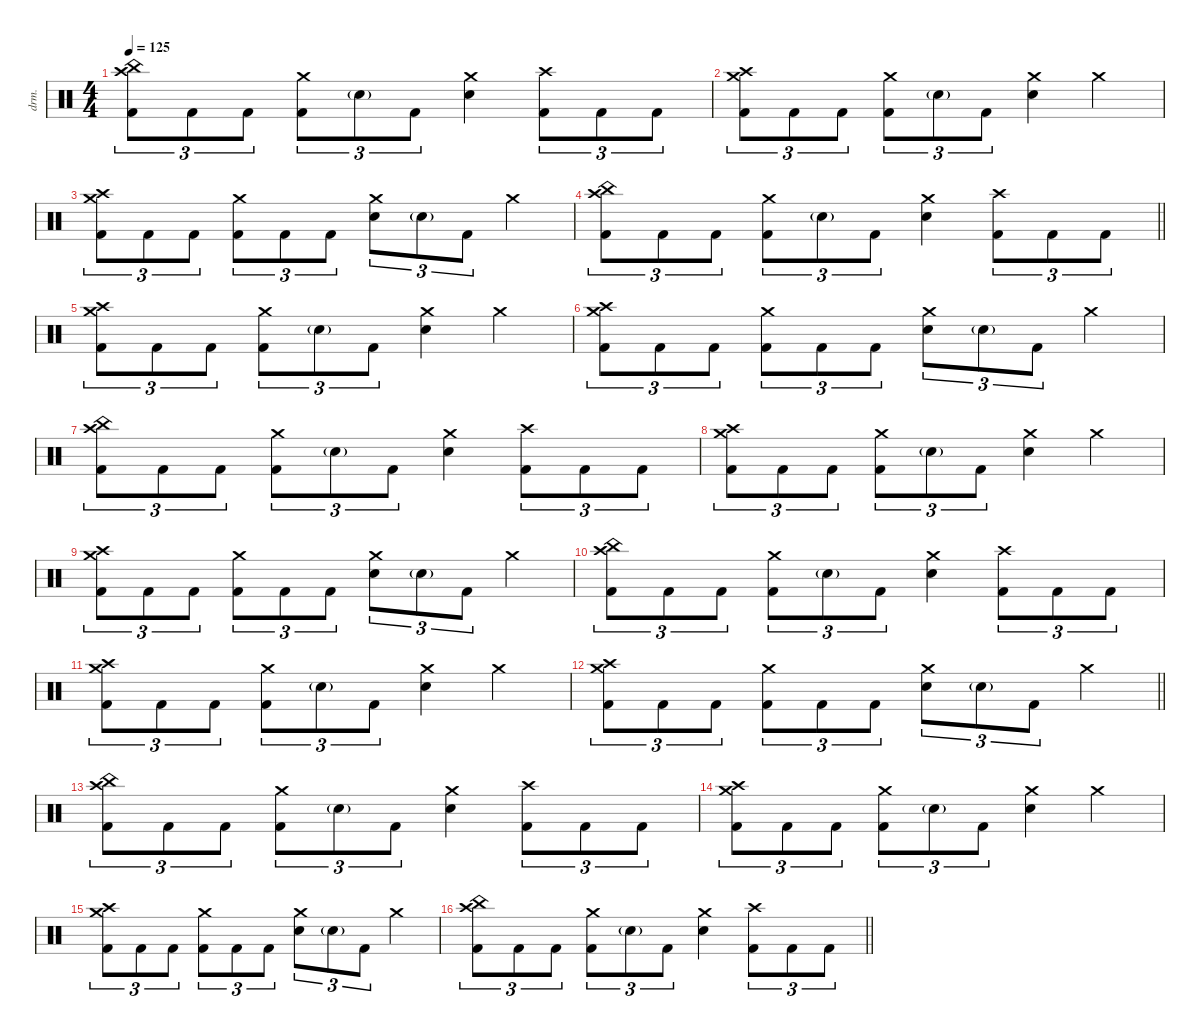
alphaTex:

\defaultSystemsLayout 4
\hideDynamics
\bracketExtendMode nobrackets
\track ("DRUMS (Thomas Haake)" "drm.") {instrument percussion}
\staff {score}
\articulation defaults
\ts (4 4)
\tempo 125
\clef neutral
\ks c
("China (hit)" "Crash high (hit)" "Kick (hit) 2").8{tu (3 2) dy mf} "Kick (hit) 2".8{tu (3 2) dy f} "Kick (hit) 2".8{tu (3 2)} ("Crash medium (hit)" "Kick (hit) 2").8{tu (3 2) dy mf} "Snare (hit) 2"{g}.8{tu (3 2) dy p} "Kick (hit) 2".8{tu (3 2) dy f} ("Crash medium (hit)" "Snare (hit) 2").4{dy mf} ("Crash high (hit)" "Kick (hit) 2").8{tu (3 2) dy f} "Kick (hit) 2".8{tu (3 2)} "Kick (hit) 2".8{tu (3 2)} |
("Crash medium (hit)" "Crash high (hit)" "Kick (hit) 2").8{tu (3 2) dy mf} "Kick (hit) 2".8{tu (3 2) dy f} "Kick (hit) 2".8{tu (3 2)} ("Crash medium (hit)" "Kick (hit) 2").8{tu (3 2) dy mf} "Snare (hit) 2"{g}.8{tu (3 2) dy p} "Kick (hit) 2".8{tu (3 2) dy f} ("Crash medium (hit)" "Snare (hit) 2").4{dy mf} "Crash medium (hit)".4 |
("Crash medium (hit)" "Crash high (hit)" "Kick (hit) 2").8{tu (3 2)} "Kick (hit) 2".8{tu (3 2) dy f} "Kick (hit) 2".8{tu (3 2)} ("Crash medium (hit)" "Kick (hit) 2").8{tu (3 2) dy mf} "Kick (hit) 2".8{tu (3 2) dy f} "Kick (hit) 2".8{tu (3 2)} ("Crash medium (hit)" "Snare (hit) 2").8{tu (3 2) dy mf} "Snare (hit) 2"{g}.8{tu (3 2) dy mp} "Kick (hit) 2".8{tu (3 2) dy f} "Crash medium (hit)".4{dy mf} |
\barLineRight lightlight
("China (hit)" "Crash high (hit)" "Kick (hit) 2").8{tu (3 2)} "Kick (hit) 2".8{tu (3 2) dy f} "Kick (hit) 2".8{tu (3 2)} ("Crash medium (hit)" "Kick (hit) 2").8{tu (3 2) dy mf} "Snare (hit) 2"{g}.8{tu (3 2) dy p} "Kick (hit) 2".8{tu (3 2) dy f} ("Crash medium (hit)" "Snare (hit) 2").4{dy mf} ("Crash high (hit)" "Kick (hit) 2").8{tu (3 2) dy f} "Kick (hit) 2".8{tu (3 2)} "Kick (hit) 2".8{tu (3 2)} |
("Crash medium (hit)" "Crash high (hit)" "Kick (hit) 2").8{tu (3 2) dy mf} "Kick (hit) 2".8{tu (3 2) dy f} "Kick (hit) 2".8{tu (3 2)} ("Crash medium (hit)" "Kick (hit) 2").8{tu (3 2) dy mf} "Snare (hit) 2"{g}.8{tu (3 2) dy p} "Kick (hit) 2".8{tu (3 2) dy f} ("Crash medium (hit)" "Snare (hit) 2").4{dy mf} "Crash medium (hit)".4 |
("Crash medium (hit)" "Crash high (hit)" "Kick (hit) 2").8{tu (3 2)} "Kick (hit) 2".8{tu (3 2) dy f} "Kick (hit) 2".8{tu (3 2)} ("Crash medium (hit)" "Kick (hit) 2").8{tu (3 2) dy mf} "Kick (hit) 2".8{tu (3 2) dy f} "Kick (hit) 2".8{tu (3 2)} ("Crash medium (hit)" "Snare (hit) 2").8{tu (3 2) dy mf} "Snare (hit) 2"{g}.8{tu (3 2) dy mp} "Kick (hit) 2".8{tu (3 2) dy f} "Crash medium (hit)".4{dy mf} |
("China (hit)" "Crash high (hit)" "Kick (hit) 2").8{tu (3 2)} "Kick (hit) 2".8{tu (3 2) dy f} "Kick (hit) 2".8{tu (3 2)} ("Crash medium (hit)" "Kick (hit) 2").8{tu (3 2) dy mf} "Snare (hit) 2"{g}.8{tu (3 2) dy p} "Kick (hit) 2".8{tu (3 2) dy f} ("Crash medium (hit)" "Snare (hit) 2").4{dy mf} ("Crash high (hit)" "Kick (hit) 2").8{tu (3 2) dy f} "Kick (hit) 2".8{tu (3 2)} "Kick (hit) 2".8{tu (3 2)} |
("Crash medium (hit)" "Crash high (hit)" "Kick (hit) 2").8{tu (3 2) dy mf} "Kick (hit) 2".8{tu (3 2) dy f} "Kick (hit) 2".8{tu (3 2)} ("Crash medium (hit)" "Kick (hit) 2").8{tu (3 2) dy mf} "Snare (hit) 2"{g}.8{tu (3 2) dy p} "Kick (hit) 2".8{tu (3 2) dy f} ("Crash medium (hit)" "Snare (hit) 2").4{dy mf} "Crash medium (hit)".4 |
("Crash medium (hit)" "Crash high (hit)" "Kick (hit) 2").8{tu (3 2)} "Kick (hit) 2".8{tu (3 2) dy f} "Kick (hit) 2".8{tu (3 2)} ("Crash medium (hit)" "Kick (hit) 2").8{tu (3 2) dy mf} "Kick (hit) 2".8{tu (3 2) dy f} "Kick (hit) 2".8{tu (3 2)} ("Crash medium (hit)" "Snare (hit) 2").8{tu (3 2) dy mf} "Snare (hit) 2"{g}.8{tu (3 2) dy mp} "Kick (hit) 2".8{tu (3 2) dy f} "Crash medium (hit)".4{dy mf} |
("China (hit)" "Crash high (hit)" "Kick (hit) 2").8{tu (3 2)} "Kick (hit) 2".8{tu (3 2) dy f} "Kick (hit) 2".8{tu (3 2)} ("Crash medium (hit)" "Kick (hit) 2").8{tu (3 2) dy mf} "Snare (hit) 2"{g}.8{tu (3 2) dy p} "Kick (hit) 2".8{tu (3 2) dy f} ("Crash medium (hit)" "Snare (hit) 2").4{dy mf} ("Crash high (hit)" "Kick (hit) 2").8{tu (3 2) dy f} "Kick (hit) 2".8{tu (3 2)} "Kick (hit) 2".8{tu (3 2)} |
("Crash medium (hit)" "Crash high (hit)" "Kick (hit) 2").8{tu (3 2) dy mf} "Kick (hit) 2".8{tu (3 2) dy f} "Kick (hit) 2".8{tu (3 2)} ("Crash medium (hit)" "Kick (hit) 2").8{tu (3 2) dy mf} "Snare (hit) 2"{g}.8{tu (3 2) dy p} "Kick (hit) 2".8{tu (3 2) dy f} ("Crash medium (hit)" "Snare (hit) 2").4{dy mf} "Crash medium (hit)".4 |
\barLineRight lightlight
("Crash medium (hit)" "Crash high (hit)" "Kick (hit) 2").8{tu (3 2)} "Kick (hit) 2".8{tu (3 2) dy f} "Kick (hit) 2".8{tu (3 2)} ("Crash medium (hit)" "Kick (hit) 2").8{tu (3 2) dy mf} "Kick (hit) 2".8{tu (3 2) dy f} "Kick (hit) 2".8{tu (3 2)} ("Crash medium (hit)" "Snare (hit) 2").8{tu (3 2) dy mf} "Snare (hit) 2"{g}.8{tu (3 2) dy mp} "Kick (hit) 2".8{tu (3 2) dy f} "Crash medium (hit)".4{dy mf} |
("China (hit)" "Crash high (hit)" "Kick (hit) 2").8{tu (3 2)} "Kick (hit) 2".8{tu (3 2) dy f} "Kick (hit) 2".8{tu (3 2)} ("Crash medium (hit)" "Kick (hit) 2").8{tu (3 2) dy mf} "Snare (hit) 2"{g}.8{tu (3 2) dy p} "Kick (hit) 2".8{tu (3 2) dy f} ("Crash medium (hit)" "Snare (hit) 2").4{dy mf} ("Crash high (hit)" "Kick (hit) 2").8{tu (3 2) dy f} "Kick (hit) 2".8{tu (3 2)} "Kick (hit) 2".8{tu (3 2)} |
("Crash medium (hit)" "Crash high (hit)" "Kick (hit) 2").8{tu (3 2) dy mf} "Kick (hit) 2".8{tu (3 2) dy f} "Kick (hit) 2".8{tu (3 2)} ("Crash medium (hit)" "Kick (hit) 2").8{tu (3 2) dy mf} "Snare (hit) 2"{g}.8{tu (3 2) dy p} "Kick (hit) 2".8{tu (3 2) dy f} ("Crash medium (hit)" "Snare (hit) 2").4{dy mf} "Crash medium (hit)".4 |
("Crash medium (hit)" "Crash high (hit)" "Kick (hit) 2").8{tu (3 2)} "Kick (hit) 2".8{tu (3 2) dy f} "Kick (hit) 2".8{tu (3 2)} ("Crash medium (hit)" "Kick (hit) 2").8{tu (3 2) dy mf} "Kick (hit) 2".8{tu (3 2) dy f} "Kick (hit) 2".8{tu (3 2)} ("Crash medium (hit)" "Snare (hit) 2").8{tu (3 2) dy mf} "Snare (hit) 2"{g}.8{tu (3 2) dy mp} "Kick (hit) 2".8{tu (3 2) dy f} "Crash medium (hit)".4{dy mf} |
\barLineRight lightlight
("China (hit)" "Crash high (hit)" "Kick (hit) 2").8{tu (3 2)} "Kick (hit) 2".8{tu (3 2) dy f} "Kick (hit) 2".8{tu (3 2)} ("Crash medium (hit)" "Kick (hit) 2").8{tu (3 2) dy mf} "Snare (hit) 2"{g}.8{tu (3 2) dy p} "Kick (hit) 2".8{tu (3 2) dy f} ("Crash medium (hit)" "Snare (hit) 2").4{dy mf} ("Crash high (hit)" "Kick (hit) 2").8{tu (3 2) dy f} "Kick (hit) 2".8{tu (3 2)} "Kick (hit) 2".8{tu (3 2)}
